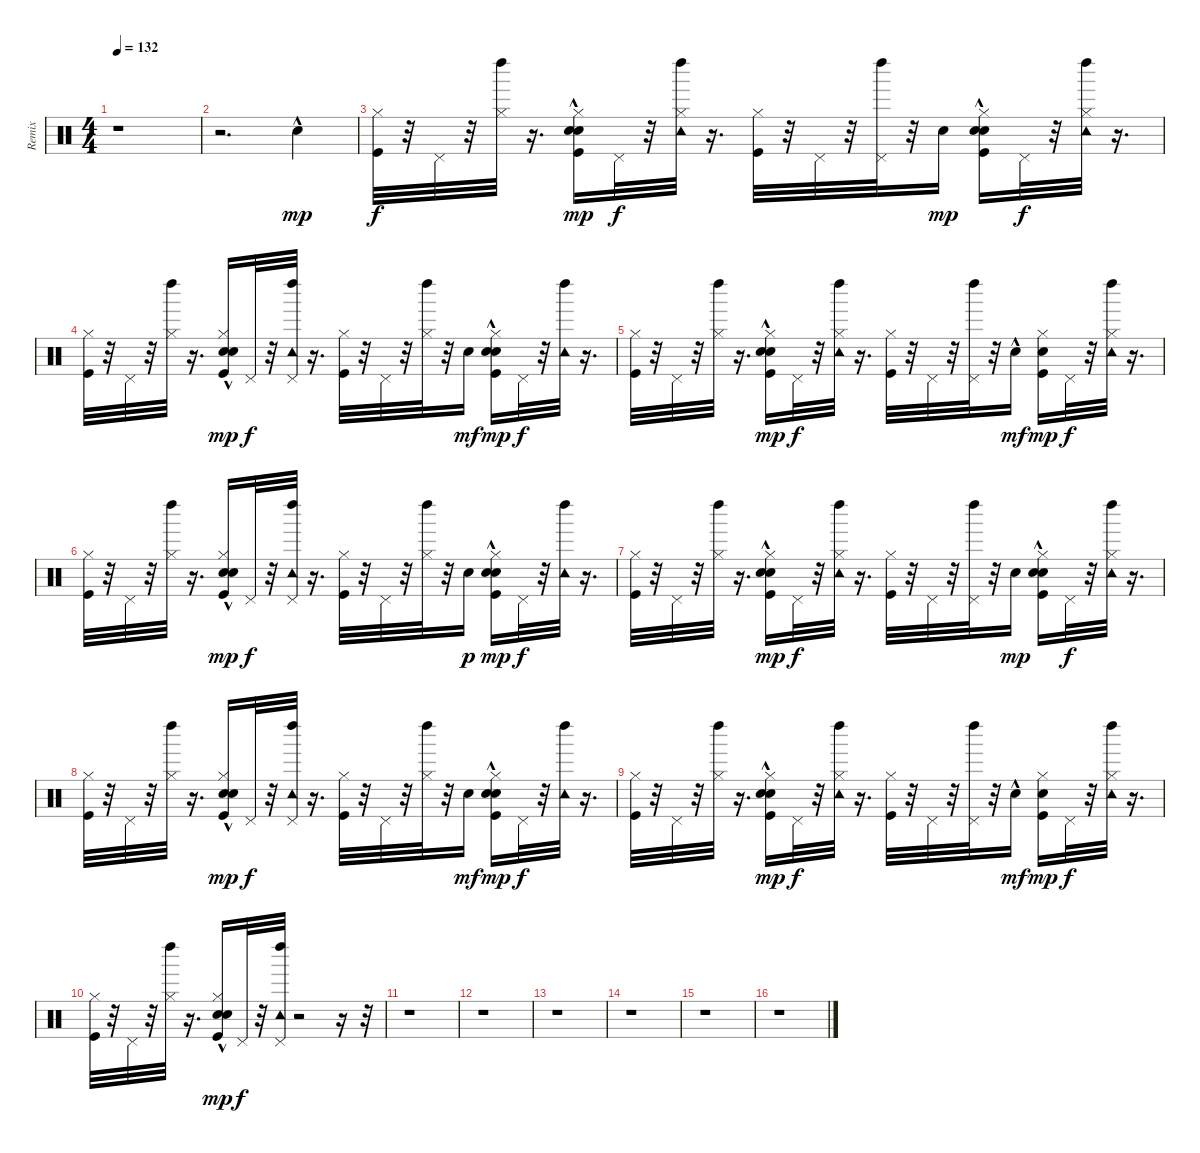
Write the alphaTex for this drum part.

\track ("Remix" "Remix") {instrument percussion}
\staff {score}
\articulation defaults
\ts (4 4)
\tempo 132
\clef neutral
\ks c
r.1{dy f} |
r.2{d} "Electric Snare (hit)"{hac}.4{dy mp volume 11} |
("Hi-Hat (closed)" "Kick (hit)").32{dy f} r.32 "Pedal Hi-Hat (hit)".32 r.32 ("Left Maraca (hit)" "Hi-Hat (closed)").32 r.16{d} ("Hi-Hat (closed)" "Kick (hit)" "Hand Clap (hit)" "Electric Snare (hit)"{hac}).16{dy mp} "Pedal Hi-Hat (hit)".32{dy f} r.32 ("Hi-Hat (closed)" "Tambourine (hit)" "Left Maraca (hit)").32 r.16{d} ("Hi-Hat (closed)" "Kick (hit)").32 r.32 "Pedal Hi-Hat (hit)".32 r.32 ("Left Maraca (hit)" "Pedal Hi-Hat (hit)").32 r.32 "Hand Clap (hit)".16{dy mp} ("Kick (hit)" "Hi-Hat (closed)" "Hand Clap (hit)" "Electric Snare (hit)"{hac}).16 "Pedal Hi-Hat (hit)".32{dy f} r.32 ("Hi-Hat (closed)" "Left Maraca (hit)" "Tambourine (hit)").32 r.16{d} |
("Hi-Hat (closed)" "Kick (hit)").32{volume 11} r.32 "Pedal Hi-Hat (hit)".32 r.32 ("Left Maraca (hit)" "Hi-Hat (closed)").32 r.16{d} ("Hand Clap (hit)" "Kick (hit)" "Hi-Hat (closed)" "Electric Snare (hit)"{hac}).16{dy mp} "Pedal Hi-Hat (hit)".32{dy f} r.32 ("Tambourine (hit)" "Left Maraca (hit)" "Pedal Hi-Hat (hit)").32 r.16{d} ("Hi-Hat (closed)" "Kick (hit)").32 r.32 "Pedal Hi-Hat (hit)".32 r.32 ("Hi-Hat (closed)" "Left Maraca (hit)").32 r.32 "Hand Clap (hit)".16{dy mf} ("Hand Clap (hit)" "Kick (hit)" "Hi-Hat (closed)" "Electric Snare (hit)"{hac}).16{dy mp} "Pedal Hi-Hat (hit)".32{dy f} r.32 ("Tambourine (hit)" "Left Maraca (hit)").32 r.16{d} |
("Hi-Hat (closed)" "Kick (hit)").32 r.32 "Pedal Hi-Hat (hit)".32 r.32 ("Left Maraca (hit)" "Hi-Hat (closed)").32 r.16{d} ("Hand Clap (hit)"{hac} "Hi-Hat (closed)" "Kick (hit)" "Electric Snare (hit)"{hac}).16{dy mp} "Pedal Hi-Hat (hit)".32{dy f} r.32 ("Hi-Hat (closed)" "Tambourine (hit)" "Left Maraca (hit)").32 r.16{d} ("Hi-Hat (closed)" "Kick (hit)").32 r.32 "Pedal Hi-Hat (hit)".32 r.32 ("Left Maraca (hit)" "Pedal Hi-Hat (hit)").32 r.32 "Hand Clap (hit)"{hac}.16{dy mf} ("Kick (hit)" "Hi-Hat (closed)" "Electric Snare (hit)").16{dy mp} "Pedal Hi-Hat (hit)".32{dy f} r.32 ("Hi-Hat (closed)" "Left Maraca (hit)" "Tambourine (hit)").32 r.16{d} |
("Hi-Hat (closed)" "Kick (hit)").32{volume 11} r.32 "Pedal Hi-Hat (hit)".32 r.32 ("Left Maraca (hit)" "Hi-Hat (closed)").32 r.16{d} ("Kick (hit)" "Hi-Hat (closed)" "Hand Clap (hit)" "Electric Snare (hit)"{hac}).16{dy mp} "Pedal Hi-Hat (hit)".32{dy f} r.32 ("Tambourine (hit)" "Left Maraca (hit)" "Pedal Hi-Hat (hit)").32 r.16{d} ("Hi-Hat (closed)" "Kick (hit)").32 r.32 "Pedal Hi-Hat (hit)".32 r.32 ("Hi-Hat (closed)" "Left Maraca (hit)").32 r.32 "Hand Clap (hit)".16{dy p} ("Kick (hit)" "Hi-Hat (closed)" "Hand Clap (hit)" "Electric Snare (hit)"{hac}).16{dy mp} "Pedal Hi-Hat (hit)".32{dy f} r.32 ("Tambourine (hit)" "Left Maraca (hit)").32 r.16{d} |
("Hi-Hat (closed)" "Kick (hit)").32 r.32 "Pedal Hi-Hat (hit)".32 r.32 ("Left Maraca (hit)" "Hi-Hat (closed)").32 r.16{d} ("Hi-Hat (closed)" "Kick (hit)" "Hand Clap (hit)" "Electric Snare (hit)"{hac}).16{dy mp} "Pedal Hi-Hat (hit)".32{dy f} r.32 ("Hi-Hat (closed)" "Tambourine (hit)" "Left Maraca (hit)").32 r.16{d} ("Hi-Hat (closed)" "Kick (hit)").32 r.32 "Pedal Hi-Hat (hit)".32 r.32 ("Left Maraca (hit)" "Pedal Hi-Hat (hit)").32 r.32 "Hand Clap (hit)".16{dy mp} ("Kick (hit)" "Hi-Hat (closed)" "Hand Clap (hit)" "Electric Snare (hit)"{hac}).16 "Pedal Hi-Hat (hit)".32{dy f} r.32 ("Hi-Hat (closed)" "Left Maraca (hit)" "Tambourine (hit)").32 r.16{d} |
("Hi-Hat (closed)" "Kick (hit)").32{volume 11} r.32 "Pedal Hi-Hat (hit)".32 r.32 ("Left Maraca (hit)" "Hi-Hat (closed)").32 r.16{d} ("Hand Clap (hit)" "Kick (hit)" "Hi-Hat (closed)" "Electric Snare (hit)"{hac}).16{dy mp} "Pedal Hi-Hat (hit)".32{dy f} r.32 ("Tambourine (hit)" "Left Maraca (hit)" "Pedal Hi-Hat (hit)").32 r.16{d} ("Hi-Hat (closed)" "Kick (hit)").32 r.32 "Pedal Hi-Hat (hit)".32 r.32 ("Hi-Hat (closed)" "Left Maraca (hit)").32 r.32 "Hand Clap (hit)".16{dy mf} ("Hand Clap (hit)" "Kick (hit)" "Hi-Hat (closed)" "Electric Snare (hit)"{hac}).16{dy mp} "Pedal Hi-Hat (hit)".32{dy f} r.32 ("Tambourine (hit)" "Left Maraca (hit)").32 r.16{d} |
("Hi-Hat (closed)" "Kick (hit)").32 r.32 "Pedal Hi-Hat (hit)".32 r.32 ("Left Maraca (hit)" "Hi-Hat (closed)").32 r.16{d} ("Hand Clap (hit)"{hac} "Hi-Hat (closed)" "Kick (hit)" "Electric Snare (hit)"{hac}).16{dy mp} "Pedal Hi-Hat (hit)".32{dy f} r.32 ("Hi-Hat (closed)" "Tambourine (hit)" "Left Maraca (hit)").32 r.16{d} ("Hi-Hat (closed)" "Kick (hit)").32 r.32 "Pedal Hi-Hat (hit)".32 r.32 ("Left Maraca (hit)" "Pedal Hi-Hat (hit)").32 r.32 "Hand Clap (hit)"{hac}.16{dy mf} ("Kick (hit)" "Hi-Hat (closed)" "Electric Snare (hit)").16{dy mp} "Pedal Hi-Hat (hit)".32{dy f} r.32 ("Hi-Hat (closed)" "Left Maraca (hit)" "Tambourine (hit)").32 r.16{d} |
("Hi-Hat (closed)" "Kick (hit)").32{volume 11} r.32 "Pedal Hi-Hat (hit)".32 r.32 ("Left Maraca (hit)" "Hi-Hat (closed)").32 r.16{d} ("Kick (hit)" "Hi-Hat (closed)" "Hand Clap (hit)" "Electric Snare (hit)"{hac}).16{dy mp} "Pedal Hi-Hat (hit)".32{dy f} r.32 ("Tambourine (hit)" "Left Maraca (hit)" "Pedal Hi-Hat (hit)").32 r.2 r.16 r.32 |
r.1 |
r.1 |
r.1 |
r.1 |
r.1 |
r.1
